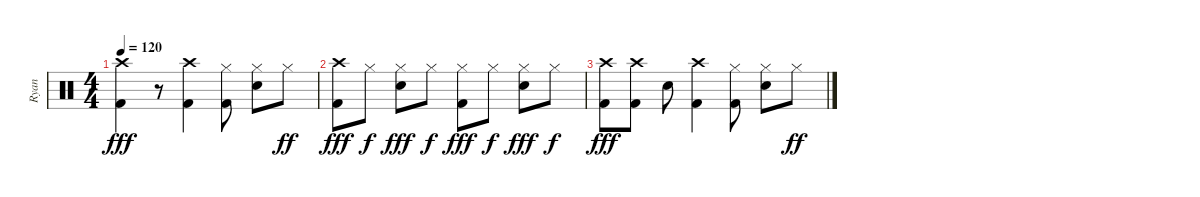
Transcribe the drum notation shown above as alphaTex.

\track ("Ryan" "Ryan") {instrument percussion}
\staff {score}
\articulation defaults
\ts (4 4)
\tempo 120
\clef neutral
\ks c
("Crash high (hit)" "Kick (hit) 2").4{dy fff} r.8 ("Crash high (hit)" "Kick (hit) 2").4 ("Hi-Hat (closed)" "Kick (hit) 2").8 ("Hi-Hat (closed)" "Snare (hit) 2").8 "Hi-Hat (closed)".8{dy ff} |
("Crash high (hit)" "Kick (hit) 2").8{dy fff} "Hi-Hat (closed)".8{dy f} ("Hi-Hat (closed)" "Snare (hit) 2").8{dy fff} "Hi-Hat (closed)".8{dy f} ("Hi-Hat (closed)" "Kick (hit) 2").8{dy fff} "Hi-Hat (closed)".8{dy f} ("Hi-Hat (closed)" "Snare (hit) 2").8{dy fff} "Hi-Hat (closed)".8{dy f} |
("Crash high (hit)" "Kick (hit) 2").8{dy fff} ("Crash high (hit)" "Kick (hit) 2").8 "Snare (hit) 2".8 ("Crash high (hit)" "Kick (hit) 2").4 ("Hi-Hat (closed)" "Kick (hit) 2").8 ("Hi-Hat (closed)" "Snare (hit) 2").8 "Hi-Hat (closed)".8{dy ff}
